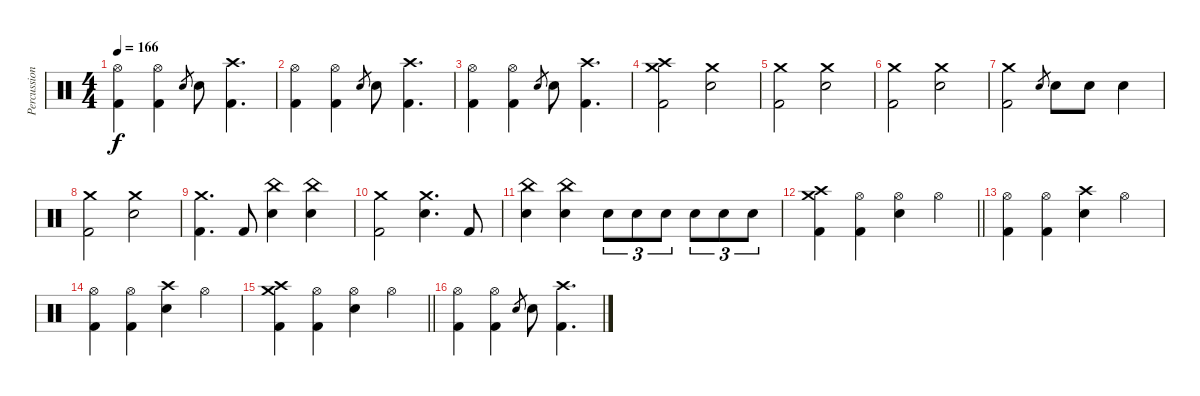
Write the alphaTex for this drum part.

\track ("Percussion" "Percussion") {instrument percussion}
\staff {score}
\articulation defaults
\ts (4 4)
\tempo 166
\clef neutral
\ks c
("Hi-Hat (open)" "Kick (hit) 2").4{dy f} ("Hi-Hat (open)" "Kick (hit) 2").4 "Electric Snare (hit)".8{gr} "Electric Snare (hit)".8 ("Crash high (hit)" "Kick (hit) 2").4{d} |
("Hi-Hat (open)" "Kick (hit) 2").4 ("Hi-Hat (open)" "Kick (hit) 2").4 "Electric Snare (hit)".8{gr} "Electric Snare (hit)".8 ("Crash high (hit)" "Kick (hit) 2").4{d} |
("Hi-Hat (open)" "Kick (hit) 2").4 ("Hi-Hat (open)" "Kick (hit) 2").4 "Electric Snare (hit)".8{gr} "Electric Snare (hit)".8 ("Crash high (hit)" "Kick (hit) 2").4{d} |
("Crash medium (hit)" "Crash high (hit)" "Kick (hit) 2").2 ("Crash medium (hit)" "Electric Snare (hit)").2 |
("Crash medium (hit)" "Kick (hit) 2").2 ("Crash medium (hit)" "Electric Snare (hit)").2 |
("Crash medium (hit)" "Kick (hit) 2").2 ("Crash medium (hit)" "Electric Snare (hit)").2 |
("Crash medium (hit)" "Kick (hit) 2").2 "Electric Snare (hit)".8{gr} "Electric Snare (hit)".8 "Electric Snare (hit)".8 "Electric Snare (hit)".4 |
("Crash medium (hit)" "Kick (hit) 2").2 ("Crash medium (hit)" "Electric Snare (hit)").2 |
("Crash medium (hit)" "Kick (hit) 2").4{d} "Kick (hit) 2".8 ("China (hit)" "Electric Snare (hit)").4 ("China (hit)" "Electric Snare (hit)").4 |
("Crash medium (hit)" "Kick (hit) 2").2 ("Crash medium (hit)" "Electric Snare (hit)").4{d} "Kick (hit) 2".8 |
("China (hit)" "Electric Snare (hit)").4 ("China (hit)" "Electric Snare (hit)").4 "Electric Snare (hit)".8{tu (3 2)} "Electric Snare (hit)".8{tu (3 2)} "Electric Snare (hit)".8{tu (3 2)} "Electric Snare (hit)".8{tu (3 2)} "Electric Snare (hit)".8{tu (3 2)} "Electric Snare (hit)".8{tu (3 2)} |
\barLineRight lightlight
("Crash medium (hit)" "Crash high (hit)" "Kick (hit) 2").4 ("Hi-Hat (open)" "Kick (hit) 2").4 ("Hi-Hat (open)" "Electric Snare (hit)").4 "Hi-Hat (open)".4 |
("Hi-Hat (open)" "Kick (hit) 2").4 ("Hi-Hat (open)" "Kick (hit) 2").4 ("Crash high (hit)" "Electric Snare (hit)").4 "Hi-Hat (open)".4 |
("Hi-Hat (open)" "Kick (hit) 2").4 ("Hi-Hat (open)" "Kick (hit) 2").4 ("Crash high (hit)" "Electric Snare (hit)").4 "Hi-Hat (open)".4 |
\barLineRight lightlight
("Crash medium (hit)" "Crash high (hit)" "Kick (hit) 2").4 ("Hi-Hat (open)" "Kick (hit) 2").4 ("Hi-Hat (open)" "Electric Snare (hit)").4 "Hi-Hat (open)".4 |
("Hi-Hat (open)" "Kick (hit) 2").4 ("Hi-Hat (open)" "Kick (hit) 2").4 "Electric Snare (hit)".8{gr} "Electric Snare (hit)".8 ("Crash high (hit)" "Kick (hit) 2").4{d}
